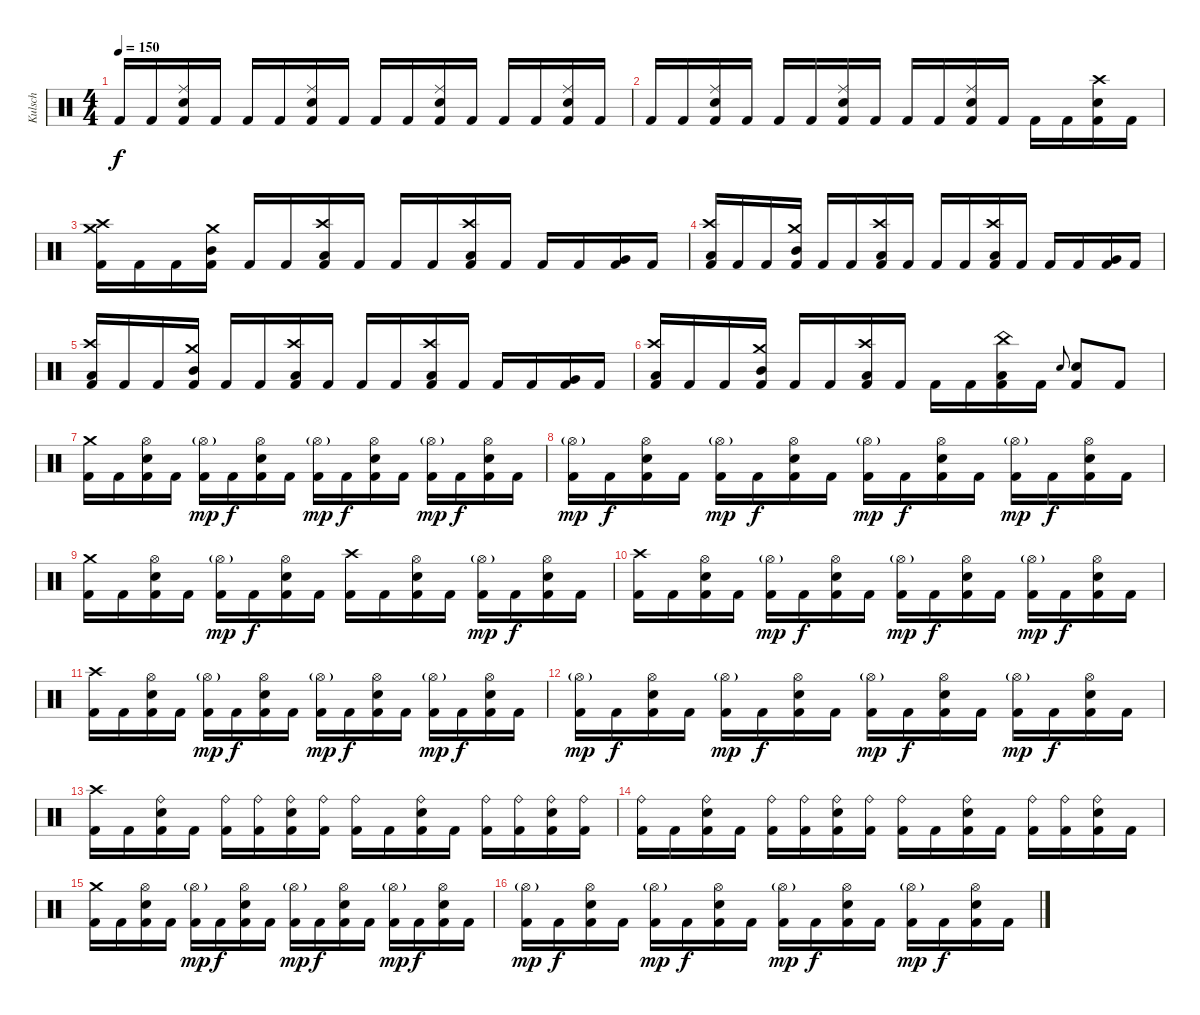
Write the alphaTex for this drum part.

\track ("Kulsch" "Kulsch") {instrument percussion}
\staff {score}
\articulation defaults
\ts (4 4)
\tempo 150
\clef neutral
\ks c "Kick (hit) 2".16{dy f} "Kick (hit) 2".16
("Ride (middle)" "Snare (hit) 2" "Kick (hit) 2").16 "Kick (hit) 2".16 "Kick (hit) 2".16 "Kick (hit) 2".16 ("Ride (middle)" "Snare (hit) 2" "Kick (hit) 2").16 "Kick (hit) 2".16 "Kick (hit) 2".16 "Kick (hit) 2".16 ("Ride (middle)" "Snare (hit) 2" "Kick (hit) 2").16 "Kick (hit) 2".16 "Kick (hit) 2".16 "Kick (hit) 2".16 ("Ride (middle)" "Snare (hit) 2" "Kick (hit) 2").16 "Kick (hit) 2".16 |
"Kick (hit) 2".16 "Kick (hit) 2".16 ("Ride (middle)" "Snare (hit) 2" "Kick (hit) 2").16 "Kick (hit) 2".16 "Kick (hit) 2".16 "Kick (hit) 2".16 ("Ride (middle)" "Snare (hit) 2" "Kick (hit) 2").16 "Kick (hit) 2".16 "Kick (hit) 2".16 "Kick (hit) 2".16 ("Ride (middle)" "Snare (hit) 2" "Kick (hit) 2").16 "Kick (hit) 2".16 "Kick (hit) 2".16 "Kick (hit) 2".16 ("Crash high (hit)" "Snare (hit) 2" "Kick (hit) 2").16 "Kick (hit) 2".16 |
("Crash medium (hit)" "Crash high (hit)" "Kick (hit) 2").16 "Kick (hit) 2".16 "Kick (hit) 2".16 ("Crash medium (hit)" "Mid Tom (hit)" "Kick (hit) 2").16 "Kick (hit) 2".16 "Kick (hit) 2".16 ("Crash high (hit)" "Low Tom (hit)" "Kick (hit) 2").16 "Kick (hit) 2".16 "Kick (hit) 2".16 "Kick (hit) 2".16 ("Crash high (hit)" "Low Tom (hit)" "Kick (hit) 2").16 "Kick (hit) 2".16 "Kick (hit) 2".16 "Kick (hit) 2".16 ("Very Low Tom (hit)" "Kick (hit) 2").16 "Kick (hit) 2".16 |
("Crash high (hit)" "Low Tom (hit)" "Kick (hit) 2").16 "Kick (hit) 2".16 "Kick (hit) 2".16 ("Crash medium (hit)" "Mid Tom (hit)" "Kick (hit) 2").16 "Kick (hit) 2".16 "Kick (hit) 2".16 ("Crash high (hit)" "Low Tom (hit)" "Kick (hit) 2").16 "Kick (hit) 2".16 "Kick (hit) 2".16 "Kick (hit) 2".16 ("Crash high (hit)" "Low Tom (hit)" "Kick (hit) 2").16 "Kick (hit) 2".16 "Kick (hit) 2".16 "Kick (hit) 2".16 ("Very Low Tom (hit)" "Kick (hit) 2").16 "Kick (hit) 2".16 |
("Crash high (hit)" "Low Tom (hit)" "Kick (hit) 2").16 "Kick (hit) 2".16 "Kick (hit) 2".16 ("Crash medium (hit)" "Mid Tom (hit)" "Kick (hit) 2").16 "Kick (hit) 2".16 "Kick (hit) 2".16 ("Crash high (hit)" "Low Tom (hit)" "Kick (hit) 2").16 "Kick (hit) 2".16 "Kick (hit) 2".16 "Kick (hit) 2".16 ("Crash high (hit)" "Low Tom (hit)" "Kick (hit) 2").16 "Kick (hit) 2".16 "Kick (hit) 2".16 "Kick (hit) 2".16 ("Very Low Tom (hit)" "Kick (hit) 2").16 "Kick (hit) 2".16 |
("Crash high (hit)" "Low Tom (hit)" "Kick (hit) 2").16 "Kick (hit) 2".16 "Kick (hit) 2".16 ("Crash medium (hit)" "Mid Tom (hit)" "Kick (hit) 2").16 "Kick (hit) 2".16 "Kick (hit) 2".16 ("Crash high (hit)" "Low Tom (hit)" "Kick (hit) 2").16 "Kick (hit) 2".16 "Kick (hit) 2".16 "Kick (hit) 2".16 ("China (hit)" "Low Tom (hit)" "Kick (hit) 2").16 "Kick (hit) 2".16 "Snare (hit) 2".8{gr onbeat} ("Snare (hit) 2" "Kick (hit) 2").8 "Kick (hit) 2".8 |
("Crash medium (hit)" "Kick (hit) 2").16 "Kick (hit) 2".16 ("Hi-Hat (open)" "Snare (hit) 2" "Kick (hit) 2").16 "Kick (hit) 2".16 ("Hi-Hat (open)"{g} "Kick (hit) 2").16{dy mp} "Kick (hit) 2".16{dy f} ("Hi-Hat (open)" "Snare (hit) 2" "Kick (hit) 2").16 "Kick (hit) 2".16 ("Hi-Hat (open)"{g} "Kick (hit) 2").16{dy mp} "Kick (hit) 2".16{dy f} ("Hi-Hat (open)" "Snare (hit) 2" "Kick (hit) 2").16 "Kick (hit) 2".16 ("Hi-Hat (open)"{g} "Kick (hit) 2").16{dy mp} "Kick (hit) 2".16{dy f} ("Hi-Hat (open)" "Snare (hit) 2" "Kick (hit) 2").16 "Kick (hit) 2".16 |
("Hi-Hat (open)"{g} "Kick (hit) 2").16{dy mp} "Kick (hit) 2".16{dy f} ("Hi-Hat (open)" "Snare (hit) 2" "Kick (hit) 2").16 "Kick (hit) 2".16 ("Hi-Hat (open)"{g} "Kick (hit) 2").16{dy mp} "Kick (hit) 2".16{dy f} ("Hi-Hat (open)" "Snare (hit) 2" "Kick (hit) 2").16 "Kick (hit) 2".16 ("Hi-Hat (open)"{g} "Kick (hit) 2").16{dy mp} "Kick (hit) 2".16{dy f} ("Hi-Hat (open)" "Snare (hit) 2" "Kick (hit) 2").16 "Kick (hit) 2".16 ("Hi-Hat (open)"{g} "Kick (hit) 2").16{dy mp} "Kick (hit) 2".16{dy f} ("Hi-Hat (open)" "Snare (hit) 2" "Kick (hit) 2").16 "Kick (hit) 2".16 |
("Crash medium (hit)" "Kick (hit) 2").16 "Kick (hit) 2".16 ("Hi-Hat (open)" "Snare (hit) 2" "Kick (hit) 2").16 "Kick (hit) 2".16 ("Hi-Hat (open)"{g} "Kick (hit) 2").16{dy mp} "Kick (hit) 2".16{dy f} ("Hi-Hat (open)" "Snare (hit) 2" "Kick (hit) 2").16 "Kick (hit) 2".16 ("Crash high (hit)" "Kick (hit) 2").16 "Kick (hit) 2".16 ("Hi-Hat (open)" "Snare (hit) 2" "Kick (hit) 2").16 "Kick (hit) 2".16 ("Hi-Hat (open)"{g} "Kick (hit) 2").16{dy mp} "Kick (hit) 2".16{dy f} ("Hi-Hat (open)" "Snare (hit) 2" "Kick (hit) 2").16 "Kick (hit) 2".16 |
("Crash high (hit)" "Kick (hit) 2").16 "Kick (hit) 2".16 ("Hi-Hat (open)" "Snare (hit) 2" "Kick (hit) 2").16 "Kick (hit) 2".16 ("Hi-Hat (open)"{g} "Kick (hit) 2").16{dy mp} "Kick (hit) 2".16{dy f} ("Hi-Hat (open)" "Snare (hit) 2" "Kick (hit) 2").16 "Kick (hit) 2".16 ("Hi-Hat (open)"{g} "Kick (hit) 2").16{dy mp} "Kick (hit) 2".16{dy f} ("Hi-Hat (open)" "Snare (hit) 2" "Kick (hit) 2").16 "Kick (hit) 2".16 ("Hi-Hat (open)"{g} "Kick (hit) 2").16{dy mp} "Kick (hit) 2".16{dy f} ("Hi-Hat (open)" "Snare (hit) 2" "Kick (hit) 2").16 "Kick (hit) 2".16 |
("Crash high (hit)" "Kick (hit) 2").16 "Kick (hit) 2".16 ("Hi-Hat (open)" "Snare (hit) 2" "Kick (hit) 2").16 "Kick (hit) 2".16 ("Hi-Hat (open)"{g} "Kick (hit) 2").16{dy mp} "Kick (hit) 2".16{dy f} ("Hi-Hat (open)" "Snare (hit) 2" "Kick (hit) 2").16 "Kick (hit) 2".16 ("Hi-Hat (open)"{g} "Kick (hit) 2").16{dy mp} "Kick (hit) 2".16{dy f} ("Hi-Hat (open)" "Snare (hit) 2" "Kick (hit) 2").16 "Kick (hit) 2".16 ("Hi-Hat (open)"{g} "Kick (hit) 2").16{dy mp} "Kick (hit) 2".16{dy f} ("Hi-Hat (open)" "Snare (hit) 2" "Kick (hit) 2").16 "Kick (hit) 2".16 |
("Hi-Hat (open)"{g} "Kick (hit) 2").16{dy mp} "Kick (hit) 2".16{dy f} ("Hi-Hat (open)" "Snare (hit) 2" "Kick (hit) 2").16 "Kick (hit) 2".16 ("Hi-Hat (open)"{g} "Kick (hit) 2").16{dy mp} "Kick (hit) 2".16{dy f} ("Hi-Hat (open)" "Snare (hit) 2" "Kick (hit) 2").16 "Kick (hit) 2".16 ("Hi-Hat (open)"{g} "Kick (hit) 2").16{dy mp} "Kick (hit) 2".16{dy f} ("Hi-Hat (open)" "Snare (hit) 2" "Kick (hit) 2").16 "Kick (hit) 2".16 ("Hi-Hat (open)"{g} "Kick (hit) 2").16{dy mp} "Kick (hit) 2".16{dy f} ("Hi-Hat (open)" "Snare (hit) 2" "Kick (hit) 2").16 "Kick (hit) 2".16 |
("Crash high (hit)" "Kick (hit) 2").16 "Kick (hit) 2".16 ("Ride (bell)" "Snare (hit) 2" "Kick (hit) 2").16 "Kick (hit) 2".16 ("Ride (bell)" "Kick (hit) 2").16 ("Ride (bell)" "Kick (hit) 2").16 ("Ride (bell)" "Snare (hit) 2" "Kick (hit) 2").16 ("Ride (bell)" "Kick (hit) 2").16 ("Ride (bell)" "Kick (hit) 2").16 "Kick (hit) 2".16 ("Ride (bell)" "Snare (hit) 2" "Kick (hit) 2").16 "Kick (hit) 2".16 ("Ride (bell)" "Kick (hit) 2").16 ("Ride (bell)" "Kick (hit) 2").16 ("Ride (bell)" "Snare (hit) 2" "Kick (hit) 2").16 ("Ride (bell)" "Kick (hit) 2").16 |
("Ride (bell)" "Kick (hit) 2").16 "Kick (hit) 2".16 ("Ride (bell)" "Snare (hit) 2" "Kick (hit) 2").16 "Kick (hit) 2".16 ("Ride (bell)" "Kick (hit) 2").16 ("Ride (bell)" "Kick (hit) 2").16 ("Ride (bell)" "Snare (hit) 2" "Kick (hit) 2").16 ("Ride (bell)" "Kick (hit) 2").16 ("Ride (bell)" "Kick (hit) 2").16 "Kick (hit) 2".16 ("Ride (bell)" "Snare (hit) 2" "Kick (hit) 2").16 "Kick (hit) 2".16 ("Ride (bell)" "Kick (hit) 2").16 ("Ride (bell)" "Kick (hit) 2").16 ("Ride (bell)" "Snare (hit) 2" "Kick (hit) 2").16 "Kick (hit) 2".16 |
("Crash medium (hit)" "Kick (hit) 2").16 "Kick (hit) 2".16 ("Hi-Hat (open)" "Snare (hit) 2" "Kick (hit) 2").16 "Kick (hit) 2".16 ("Hi-Hat (open)"{g} "Kick (hit) 2").16{dy mp} "Kick (hit) 2".16{dy f} ("Hi-Hat (open)" "Snare (hit) 2" "Kick (hit) 2").16 "Kick (hit) 2".16 ("Hi-Hat (open)"{g} "Kick (hit) 2").16{dy mp} "Kick (hit) 2".16{dy f} ("Hi-Hat (open)" "Snare (hit) 2" "Kick (hit) 2").16 "Kick (hit) 2".16 ("Hi-Hat (open)"{g} "Kick (hit) 2").16{dy mp} "Kick (hit) 2".16{dy f} ("Hi-Hat (open)" "Snare (hit) 2" "Kick (hit) 2").16 "Kick (hit) 2".16 |
("Hi-Hat (open)"{g} "Kick (hit) 2").16{dy mp} "Kick (hit) 2".16{dy f} ("Hi-Hat (open)" "Snare (hit) 2" "Kick (hit) 2").16 "Kick (hit) 2".16 ("Hi-Hat (open)"{g} "Kick (hit) 2").16{dy mp} "Kick (hit) 2".16{dy f} ("Hi-Hat (open)" "Snare (hit) 2" "Kick (hit) 2").16 "Kick (hit) 2".16 ("Hi-Hat (open)"{g} "Kick (hit) 2").16{dy mp} "Kick (hit) 2".16{dy f} ("Hi-Hat (open)" "Snare (hit) 2" "Kick (hit) 2").16 "Kick (hit) 2".16 ("Hi-Hat (open)"{g} "Kick (hit) 2").16{dy mp} "Kick (hit) 2".16{dy f} ("Hi-Hat (open)" "Snare (hit) 2" "Kick (hit) 2").16 "Kick (hit) 2".16
